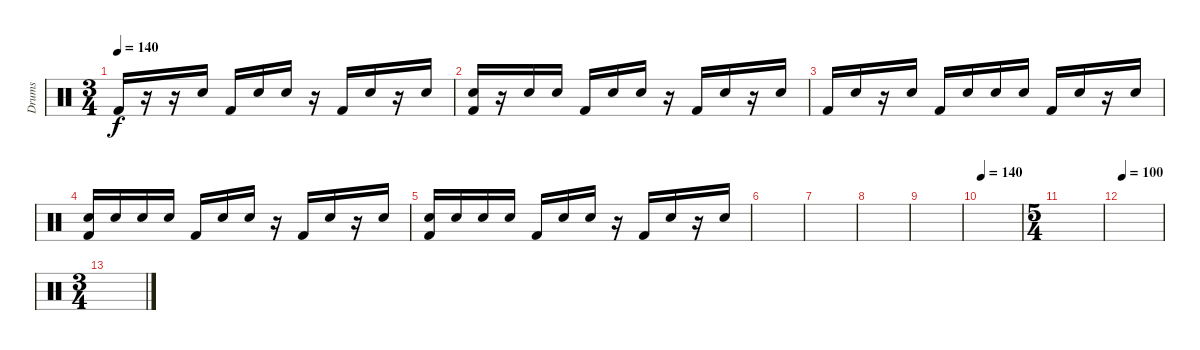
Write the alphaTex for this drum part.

\track ("Drums" "Drums") {instrument percussion}
\staff {score}
\articulation defaults
\ts (3 4)
\tempo 140
\clef neutral
\ks c "Kick (hit) 2".16{dy f}
r.16 r.16 "Snare (hit) 2".16 "Kick (hit) 2".16 "Snare (hit) 2".16 "Snare (hit) 2".16 r.16 "Kick (hit) 2".16 "Snare (hit) 2".16 r.16 "Snare (hit) 2".16 |
("Snare (hit) 2" "Kick (hit) 2").16 r.16 "Snare (hit) 2".16 "Snare (hit) 2".16 "Kick (hit) 2".16 "Snare (hit) 2".16 "Snare (hit) 2".16 r.16 "Kick (hit) 2".16 "Snare (hit) 2".16 r.16 "Snare (hit) 2".16 |
"Kick (hit) 2".16 "Snare (hit) 2".16 r.16 "Snare (hit) 2".16 "Kick (hit) 2".16 "Snare (hit) 2".16 "Snare (hit) 2".16 "Snare (hit) 2".16 "Kick (hit) 2".16 "Snare (hit) 2".16 r.16 "Snare (hit) 2".16 |
("Snare (hit) 2" "Kick (hit) 2").16 "Snare (hit) 2".16 "Snare (hit) 2".16 "Snare (hit) 2".16 "Kick (hit) 2".16 "Snare (hit) 2".16 "Snare (hit) 2".16 r.16 "Kick (hit) 2".16 "Snare (hit) 2".16 r.16 "Snare (hit) 2".16 |
("Snare (hit) 2" "Kick (hit) 2").16 "Snare (hit) 2".16 "Snare (hit) 2".16 "Snare (hit) 2".16 "Kick (hit) 2".16 "Snare (hit) 2".16 "Snare (hit) 2".16 r.16 "Kick (hit) 2".16 "Snare (hit) 2".16 r.16 "Snare (hit) 2".16 |
|
|
|
|
\tempo 140
|
\ts (5 4)
|
\tempo 100
|
\ts (3 4)
